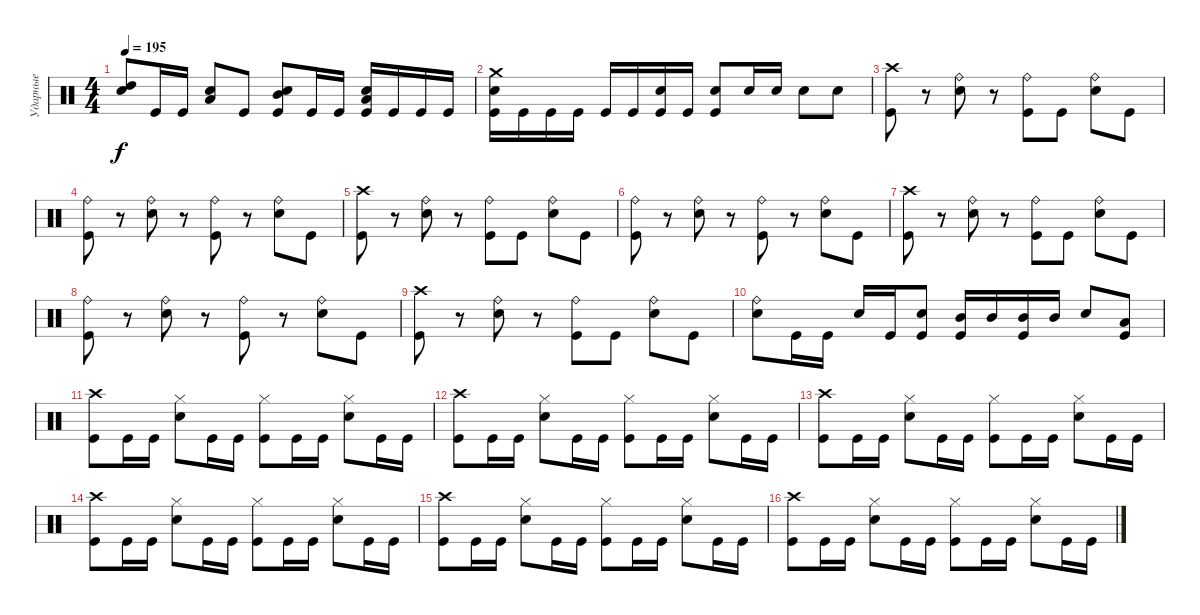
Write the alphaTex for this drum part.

\track ("Ударные" "Ударные") {instrument percussion}
\staff {score}
\articulation defaults
\ts (4 4)
\tempo 195
\clef neutral
\ks c
("High Tom (hit)" "Electric Snare (hit)").8{dy f} "Kick (hit)".16 "Kick (hit)".16 ("Low Tom (hit)" "Electric Snare (hit)").8 "Kick (hit)".8 ("Mid Tom (hit)" "Electric Snare (hit)" "Kick (hit)").8 "Kick (hit)".16 "Kick (hit)".16 ("Low Tom (hit)" "Electric Snare (hit)" "Kick (hit)").16 "Kick (hit)".16 "Kick (hit)".16 "Kick (hit)".16 |
("Crash medium (hit)" "Electric Snare (hit)" "Kick (hit)").16 "Kick (hit)".16 "Kick (hit)".16 "Kick (hit)".16 "Kick (hit)".16 "Kick (hit)".16 ("Electric Snare (hit)" "Kick (hit)").16 "Kick (hit)".16 ("Electric Snare (hit)" "Kick (hit)").8 "Electric Snare (hit)".16 "Electric Snare (hit)".16 "Electric Snare (hit)".8 "Electric Snare (hit)".8 |
("Crash high (hit)" "Kick (hit)").8 r.8 ("Ride (bell)" "Electric Snare (hit)").8 r.8 ("Ride (bell)" "Kick (hit)").8 "Kick (hit)".8 ("Ride (bell)" "Electric Snare (hit)").8 "Kick (hit)".8 |
("Ride (bell)" "Kick (hit)").8 r.8 ("Ride (bell)" "Electric Snare (hit)").8 r.8 ("Ride (bell)" "Kick (hit)").8 r.8 ("Ride (bell)" "Electric Snare (hit)").8 "Kick (hit)".8 |
("Crash high (hit)" "Kick (hit)").8 r.8 ("Ride (bell)" "Electric Snare (hit)").8 r.8 ("Ride (bell)" "Kick (hit)").8 "Kick (hit)".8 ("Ride (bell)" "Electric Snare (hit)").8 "Kick (hit)".8 |
("Ride (bell)" "Kick (hit)").8 r.8 ("Ride (bell)" "Electric Snare (hit)").8 r.8 ("Ride (bell)" "Kick (hit)").8 r.8 ("Ride (bell)" "Electric Snare (hit)").8 "Kick (hit)".8 |
("Crash high (hit)" "Kick (hit)").8 r.8 ("Ride (bell)" "Electric Snare (hit)").8 r.8 ("Ride (bell)" "Kick (hit)").8 "Kick (hit)".8 ("Ride (bell)" "Electric Snare (hit)").8 "Kick (hit)".8 |
("Ride (bell)" "Kick (hit)").8 r.8 ("Ride (bell)" "Electric Snare (hit)").8 r.8 ("Ride (bell)" "Kick (hit)").8 r.8 ("Ride (bell)" "Electric Snare (hit)").8 "Kick (hit)".8 |
("Crash high (hit)" "Kick (hit)").8 r.8 ("Ride (bell)" "Electric Snare (hit)").8 r.8 ("Ride (bell)" "Kick (hit)").8 "Kick (hit)".8 ("Ride (bell)" "Electric Snare (hit)").8 "Kick (hit)".8 |
("Ride (bell)" "Electric Snare (hit)").8 "Kick (hit)".16 "Kick (hit)".16 "Electric Snare (hit)".16 "Kick (hit)".16 ("Electric Snare (hit)" "Kick (hit)").8 ("Mid Tom (hit)" "Kick (hit)").16 "Mid Tom (hit)".16 ("Mid Tom (hit)" "Kick (hit)").16 "Mid Tom (hit)".16 "Electric Snare (hit)".8 ("Low Tom (hit)" "Kick (hit)").8 |
("Crash high (hit)" "Kick (hit)").8 "Kick (hit)".16 "Kick (hit)".16 ("Hi-Hat (closed)" "Electric Snare (hit)").8 "Kick (hit)".16 "Kick (hit)".16 ("Hi-Hat (closed)" "Kick (hit)").8 "Kick (hit)".16 "Kick (hit)".16 ("Hi-Hat (closed)" "Electric Snare (hit)").8 "Kick (hit)".16 "Kick (hit)".16 |
("Crash high (hit)" "Kick (hit)").8 "Kick (hit)".16 "Kick (hit)".16 ("Hi-Hat (closed)" "Electric Snare (hit)").8 "Kick (hit)".16 "Kick (hit)".16 ("Hi-Hat (closed)" "Kick (hit)").8 "Kick (hit)".16 "Kick (hit)".16 ("Hi-Hat (closed)" "Electric Snare (hit)").8 "Kick (hit)".16 "Kick (hit)".16 |
("Crash high (hit)" "Kick (hit)").8 "Kick (hit)".16 "Kick (hit)".16 ("Hi-Hat (closed)" "Electric Snare (hit)").8 "Kick (hit)".16 "Kick (hit)".16 ("Hi-Hat (closed)" "Kick (hit)").8 "Kick (hit)".16 "Kick (hit)".16 ("Hi-Hat (closed)" "Electric Snare (hit)").8 "Kick (hit)".16 "Kick (hit)".16 |
("Crash high (hit)" "Kick (hit)").8 "Kick (hit)".16 "Kick (hit)".16 ("Hi-Hat (closed)" "Electric Snare (hit)").8 "Kick (hit)".16 "Kick (hit)".16 ("Hi-Hat (closed)" "Kick (hit)").8 "Kick (hit)".16 "Kick (hit)".16 ("Hi-Hat (closed)" "Electric Snare (hit)").8 "Kick (hit)".16 "Kick (hit)".16 |
("Crash high (hit)" "Kick (hit)").8 "Kick (hit)".16 "Kick (hit)".16 ("Hi-Hat (closed)" "Electric Snare (hit)").8 "Kick (hit)".16 "Kick (hit)".16 ("Hi-Hat (closed)" "Kick (hit)").8 "Kick (hit)".16 "Kick (hit)".16 ("Hi-Hat (closed)" "Electric Snare (hit)").8 "Kick (hit)".16 "Kick (hit)".16 |
("Crash high (hit)" "Kick (hit)").8 "Kick (hit)".16 "Kick (hit)".16 ("Hi-Hat (closed)" "Electric Snare (hit)").8 "Kick (hit)".16 "Kick (hit)".16 ("Hi-Hat (closed)" "Kick (hit)").8 "Kick (hit)".16 "Kick (hit)".16 ("Hi-Hat (closed)" "Electric Snare (hit)").8 "Kick (hit)".16 "Kick (hit)".16
